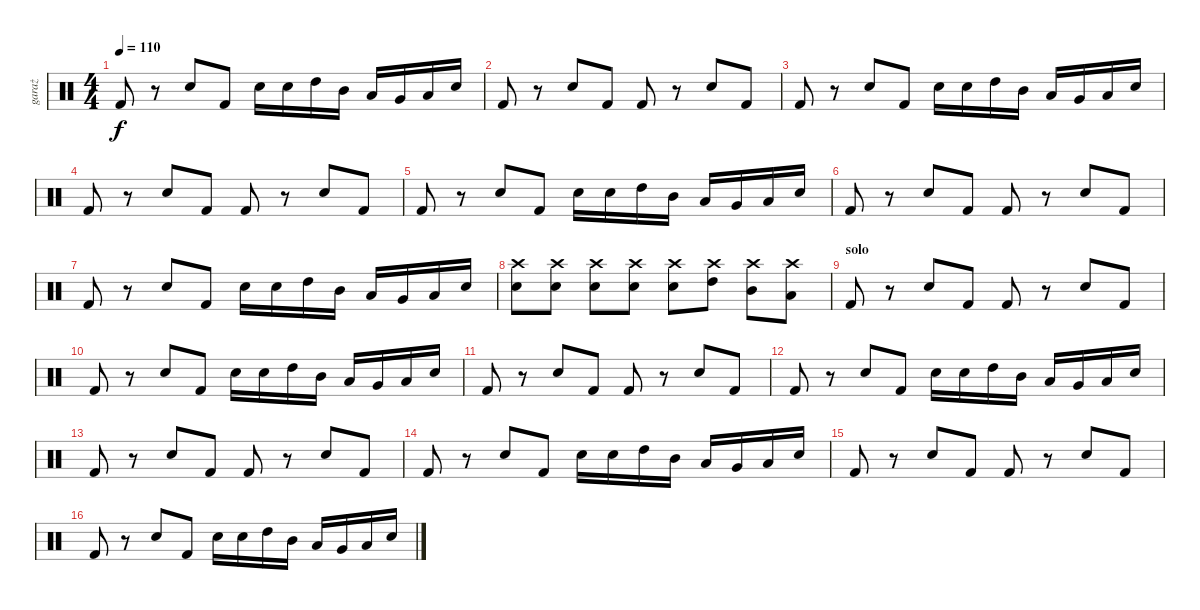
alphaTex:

\track ("garaż" "garaż") {instrument percussion}
\staff {score}
\articulation defaults
\ts (4 4)
\tempo 110
\clef neutral
\ks c "Kick (hit) 2".8{dy f}
r.8 "Snare (hit) 2".8 "Kick (hit) 2".8 "Snare (hit) 2".16 "Snare (hit) 2".16 "High Tom (hit)".16 "Mid Tom (hit)".16 "Low Tom (hit)".16 "Very Low Tom (hit)".16 "Low Floor Tom (hit)".16 "Snare (hit) 2".16 |
"Kick (hit) 2".8 r.8 "Snare (hit) 2".8 "Kick (hit) 2".8 "Kick (hit) 2".8 r.8 "Snare (hit) 2".8 "Kick (hit) 2".8 |
"Kick (hit) 2".8 r.8 "Snare (hit) 2".8 "Kick (hit) 2".8 "Snare (hit) 2".16 "Snare (hit) 2".16 "High Tom (hit)".16 "Mid Tom (hit)".16 "Low Tom (hit)".16 "Very Low Tom (hit)".16 "Low Floor Tom (hit)".16 "Snare (hit) 2".16 |
"Kick (hit) 2".8 r.8 "Snare (hit) 2".8 "Kick (hit) 2".8 "Kick (hit) 2".8 r.8 "Snare (hit) 2".8 "Kick (hit) 2".8 |
"Kick (hit) 2".8 r.8 "Snare (hit) 2".8 "Kick (hit) 2".8 "Snare (hit) 2".16 "Snare (hit) 2".16 "High Tom (hit)".16 "Mid Tom (hit)".16 "Low Tom (hit)".16 "Very Low Tom (hit)".16 "Low Floor Tom (hit)".16 "Snare (hit) 2".16 |
"Kick (hit) 2".8 r.8 "Snare (hit) 2".8 "Kick (hit) 2".8 "Kick (hit) 2".8 r.8 "Snare (hit) 2".8 "Kick (hit) 2".8 |
"Kick (hit) 2".8 r.8 "Snare (hit) 2".8 "Kick (hit) 2".8 "Snare (hit) 2".16 "Snare (hit) 2".16 "High Tom (hit)".16 "Mid Tom (hit)".16 "Low Tom (hit)".16 "Very Low Tom (hit)".16 "Low Floor Tom (hit)".16 "Snare (hit) 2".16 |
("Crash high (hit)" "Snare (hit) 2").8 ("Crash high (hit)" "Snare (hit) 2").8 ("Crash high (hit)" "Snare (hit) 2").8 ("Crash high (hit)" "Snare (hit) 2").8 ("Crash high (hit)" "Snare (hit) 2").8 ("Crash high (hit)" "High Tom (hit)").8 ("Crash high (hit)" "Mid Tom (hit)").8 ("Crash high (hit)" "Low Tom (hit)").8 |
\section ("" "solo")
"Kick (hit) 2".8 r.8 "Snare (hit) 2".8 "Kick (hit) 2".8 "Kick (hit) 2".8 r.8 "Snare (hit) 2".8 "Kick (hit) 2".8 |
"Kick (hit) 2".8 r.8 "Snare (hit) 2".8 "Kick (hit) 2".8 "Snare (hit) 2".16 "Snare (hit) 2".16 "High Tom (hit)".16 "Mid Tom (hit)".16 "Low Tom (hit)".16 "Very Low Tom (hit)".16 "Low Floor Tom (hit)".16 "Snare (hit) 2".16 |
"Kick (hit) 2".8 r.8 "Snare (hit) 2".8 "Kick (hit) 2".8 "Kick (hit) 2".8 r.8 "Snare (hit) 2".8 "Kick (hit) 2".8 |
"Kick (hit) 2".8 r.8 "Snare (hit) 2".8 "Kick (hit) 2".8 "Snare (hit) 2".16 "Snare (hit) 2".16 "High Tom (hit)".16 "Mid Tom (hit)".16 "Low Tom (hit)".16 "Very Low Tom (hit)".16 "Low Floor Tom (hit)".16 "Snare (hit) 2".16 |
"Kick (hit) 2".8 r.8 "Snare (hit) 2".8 "Kick (hit) 2".8 "Kick (hit) 2".8 r.8 "Snare (hit) 2".8 "Kick (hit) 2".8 |
"Kick (hit) 2".8 r.8 "Snare (hit) 2".8 "Kick (hit) 2".8 "Snare (hit) 2".16 "Snare (hit) 2".16 "High Tom (hit)".16 "Mid Tom (hit)".16 "Low Tom (hit)".16 "Very Low Tom (hit)".16 "Low Floor Tom (hit)".16 "Snare (hit) 2".16 |
"Kick (hit) 2".8 r.8 "Snare (hit) 2".8 "Kick (hit) 2".8 "Kick (hit) 2".8 r.8 "Snare (hit) 2".8 "Kick (hit) 2".8 |
"Kick (hit) 2".8 r.8 "Snare (hit) 2".8 "Kick (hit) 2".8 "Snare (hit) 2".16 "Snare (hit) 2".16 "High Tom (hit)".16 "Mid Tom (hit)".16 "Low Tom (hit)".16 "Very Low Tom (hit)".16 "Low Floor Tom (hit)".16 "Snare (hit) 2".16
